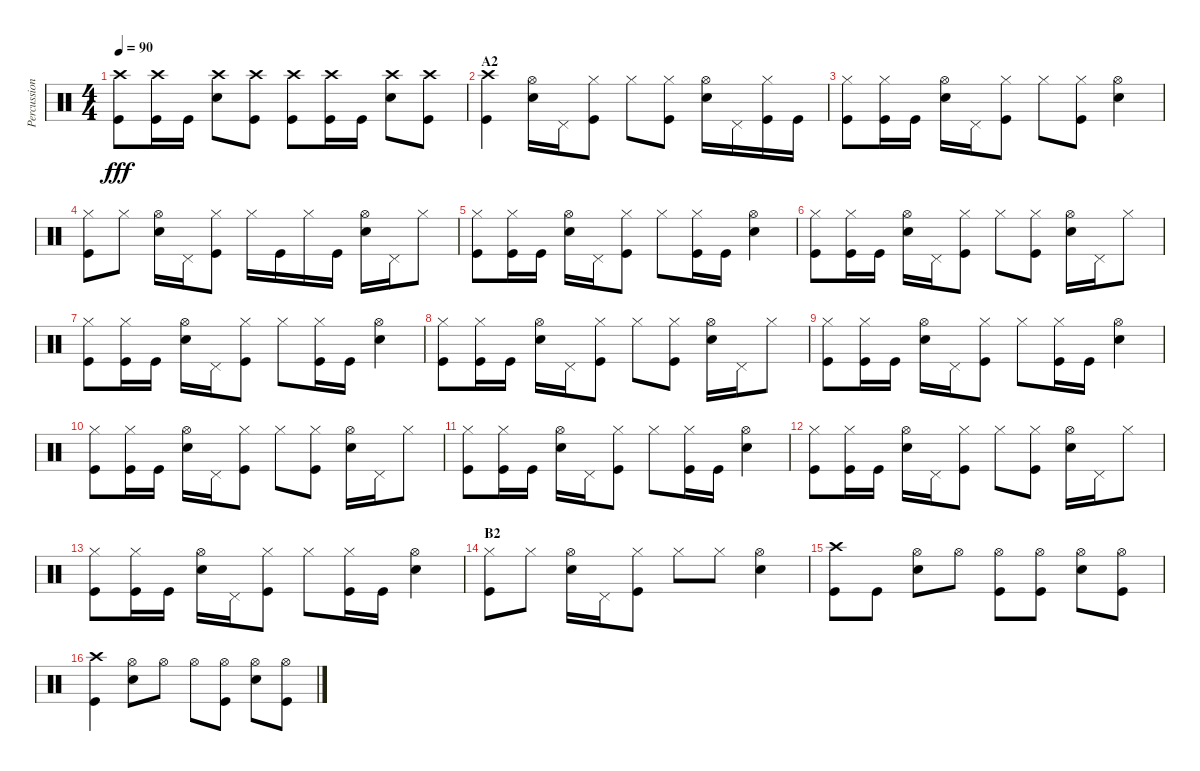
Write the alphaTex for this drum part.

\track ("Percussion" "Percussion") {instrument percussion}
\staff {score}
\articulation defaults
\ts (4 4)
\tempo 90
\clef neutral
\ks c
("Crash high (hit)" "Kick (hit)").8{dy fff} ("Crash high (hit)" "Kick (hit)").16 "Kick (hit)".16 ("Crash high (hit)" "Electric Snare (hit)").8 ("Crash high (hit)" "Kick (hit)").8 ("Crash high (hit)" "Kick (hit)").8 ("Crash high (hit)" "Kick (hit)").16 "Kick (hit)".16 ("Crash high (hit)" "Electric Snare (hit)").8 ("Crash high (hit)" "Kick (hit)").8 |
\section ("" "A2")
("Crash high (hit)" "Kick (hit)").4 ("Hi-Hat (open)" "Electric Snare (hit)").16 "Pedal Hi-Hat (hit)".16 ("Hi-Hat (closed)" "Kick (hit)").8 "Hi-Hat (closed)".8 ("Hi-Hat (closed)" "Kick (hit)").8 ("Hi-Hat (open)" "Electric Snare (hit)").16 "Pedal Hi-Hat (hit)".16 ("Hi-Hat (closed)" "Kick (hit)").16 "Kick (hit)".16 |
("Hi-Hat (closed)" "Kick (hit)").8 ("Hi-Hat (closed)" "Kick (hit)").16 "Kick (hit)".16 ("Hi-Hat (open)" "Electric Snare (hit)").16 "Pedal Hi-Hat (hit)".16 ("Hi-Hat (closed)" "Kick (hit)").8 "Hi-Hat (closed)".8 ("Hi-Hat (closed)" "Kick (hit)").8 ("Hi-Hat (open)" "Electric Snare (hit)").4 |
("Hi-Hat (closed)" "Kick (hit)").8 "Hi-Hat (closed)".8 ("Hi-Hat (open)" "Electric Snare (hit)").16 "Pedal Hi-Hat (hit)".16 ("Hi-Hat (closed)" "Kick (hit)").8 "Hi-Hat (closed)".16 "Kick (hit)".16 "Hi-Hat (closed)".16 "Kick (hit)".16 ("Hi-Hat (open)" "Electric Snare (hit)").16 "Pedal Hi-Hat (hit)".16 "Hi-Hat (closed)".8 |
("Hi-Hat (closed)" "Kick (hit)").8 ("Hi-Hat (closed)" "Kick (hit)").16 "Kick (hit)".16 ("Hi-Hat (open)" "Electric Snare (hit)").16 "Pedal Hi-Hat (hit)".16 ("Hi-Hat (closed)" "Kick (hit)").8 "Hi-Hat (closed)".8 ("Hi-Hat (closed)" "Kick (hit)").16 "Kick (hit)".16 ("Hi-Hat (open)" "Electric Snare (hit)").4 |
("Hi-Hat (closed)" "Kick (hit)").8 ("Hi-Hat (closed)" "Kick (hit)").16 "Kick (hit)".16 ("Hi-Hat (open)" "Electric Snare (hit)").16 "Pedal Hi-Hat (hit)".16 ("Hi-Hat (closed)" "Kick (hit)").8 "Hi-Hat (closed)".8 ("Hi-Hat (closed)" "Kick (hit)").8 ("Hi-Hat (open)" "Electric Snare (hit)").16 "Pedal Hi-Hat (hit)".16 "Hi-Hat (closed)".8 |
("Hi-Hat (closed)" "Kick (hit)").8 ("Hi-Hat (closed)" "Kick (hit)").16 "Kick (hit)".16 ("Hi-Hat (open)" "Electric Snare (hit)").16 "Pedal Hi-Hat (hit)".16 ("Hi-Hat (closed)" "Kick (hit)").8 "Hi-Hat (closed)".8 ("Hi-Hat (closed)" "Kick (hit)").16 "Kick (hit)".16 ("Hi-Hat (open)" "Electric Snare (hit)").4 |
("Hi-Hat (closed)" "Kick (hit)").8 ("Hi-Hat (closed)" "Kick (hit)").16 "Kick (hit)".16 ("Hi-Hat (open)" "Electric Snare (hit)").16 "Pedal Hi-Hat (hit)".16 ("Hi-Hat (closed)" "Kick (hit)").8 "Hi-Hat (closed)".8 ("Hi-Hat (closed)" "Kick (hit)").8 ("Hi-Hat (open)" "Electric Snare (hit)").16 "Pedal Hi-Hat (hit)".16 "Hi-Hat (closed)".8 |
("Hi-Hat (closed)" "Kick (hit)").8 ("Hi-Hat (closed)" "Kick (hit)").16 "Kick (hit)".16 ("Hi-Hat (open)" "Electric Snare (hit)").16 "Pedal Hi-Hat (hit)".16 ("Hi-Hat (closed)" "Kick (hit)").8 "Hi-Hat (closed)".8 ("Hi-Hat (closed)" "Kick (hit)").16 "Kick (hit)".16 ("Hi-Hat (open)" "Electric Snare (hit)").4 |
("Hi-Hat (closed)" "Kick (hit)").8 ("Hi-Hat (closed)" "Kick (hit)").16 "Kick (hit)".16 ("Hi-Hat (open)" "Electric Snare (hit)").16 "Pedal Hi-Hat (hit)".16 ("Hi-Hat (closed)" "Kick (hit)").8 "Hi-Hat (closed)".8 ("Hi-Hat (closed)" "Kick (hit)").8 ("Hi-Hat (open)" "Electric Snare (hit)").16 "Pedal Hi-Hat (hit)".16 "Hi-Hat (closed)".8 |
("Hi-Hat (closed)" "Kick (hit)").8 ("Hi-Hat (closed)" "Kick (hit)").16 "Kick (hit)".16 ("Hi-Hat (open)" "Electric Snare (hit)").16 "Pedal Hi-Hat (hit)".16 ("Hi-Hat (closed)" "Kick (hit)").8 "Hi-Hat (closed)".8 ("Hi-Hat (closed)" "Kick (hit)").16 "Kick (hit)".16 ("Hi-Hat (open)" "Electric Snare (hit)").4 |
("Hi-Hat (closed)" "Kick (hit)").8 ("Hi-Hat (closed)" "Kick (hit)").16 "Kick (hit)".16 ("Hi-Hat (open)" "Electric Snare (hit)").16 "Pedal Hi-Hat (hit)".16 ("Hi-Hat (closed)" "Kick (hit)").8 "Hi-Hat (closed)".8 ("Hi-Hat (closed)" "Kick (hit)").8 ("Hi-Hat (open)" "Electric Snare (hit)").16 "Pedal Hi-Hat (hit)".16 "Hi-Hat (closed)".8 |
("Hi-Hat (closed)" "Kick (hit)").8 ("Hi-Hat (closed)" "Kick (hit)").16 "Kick (hit)".16 ("Hi-Hat (open)" "Electric Snare (hit)").16 "Pedal Hi-Hat (hit)".16 ("Hi-Hat (closed)" "Kick (hit)").8 "Hi-Hat (closed)".8 ("Hi-Hat (closed)" "Kick (hit)").16 "Kick (hit)".16 ("Hi-Hat (open)" "Electric Snare (hit)").4 |
\section ("" "B2")
("Hi-Hat (closed)" "Kick (hit)").8 "Hi-Hat (closed)".8 ("Hi-Hat (open)" "Electric Snare (hit)").16 "Pedal Hi-Hat (hit)".16 ("Hi-Hat (closed)" "Kick (hit)").8 "Hi-Hat (closed)".8 "Hi-Hat (closed)".8 ("Hi-Hat (open)" "Electric Snare (hit)").4 |
("Crash high (hit)" "Kick (hit)").8 "Kick (hit)".8 ("Hi-Hat (open)" "Electric Snare (hit)").8 "Hi-Hat (open)".8 ("Hi-Hat (open)" "Kick (hit)").8 ("Hi-Hat (open)" "Kick (hit)").8 ("Hi-Hat (open)" "Electric Snare (hit)").8 ("Hi-Hat (open)" "Kick (hit)").8 |
("Crash high (hit)" "Kick (hit)").4 ("Hi-Hat (open)" "Electric Snare (hit)").8 "Hi-Hat (open)".8 "Hi-Hat (open)".8 ("Hi-Hat (open)" "Kick (hit)").8 ("Hi-Hat (open)" "Electric Snare (hit)").8 ("Hi-Hat (open)" "Kick (hit)").8
